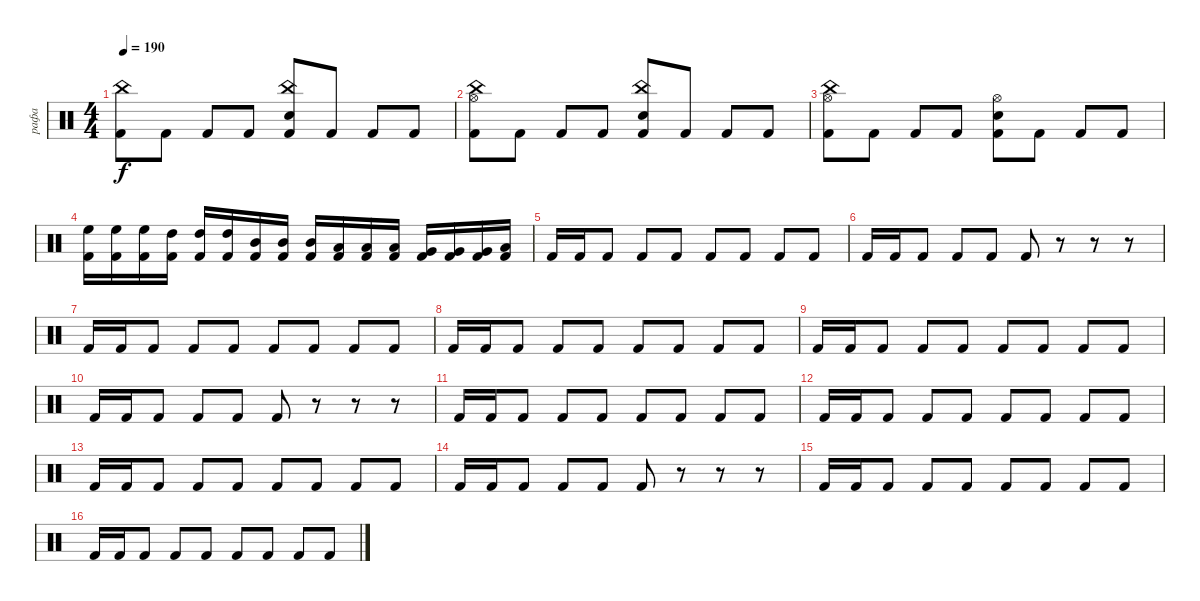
\track ("рафа" "рафа") {instrument percussion}
\staff {score}
\articulation defaults
\ts (4 4)
\tempo 190
\clef neutral
\ks c
("Kick (hit) 2" "China (hit)").8{dy f} "Kick (hit) 2".8 "Kick (hit) 2".8 "Kick (hit) 2".8 ("Kick (hit) 2" "China (hit)" "Snare (hit) 2").8 "Kick (hit) 2".8 "Kick (hit) 2".8 "Kick (hit) 2".8 |
("Kick (hit) 2" "China (hit)" "Hi-Hat (open)").8 "Kick (hit) 2".8 "Kick (hit) 2".8 "Kick (hit) 2".8 ("Kick (hit) 2" "Snare (hit) 2" "China (hit)").8 "Kick (hit) 2".8 "Kick (hit) 2".8 "Kick (hit) 2".8 |
("Kick (hit) 2" "China (hit)" "Hi-Hat (open)").8 "Kick (hit) 2".8 "Kick (hit) 2".8 "Kick (hit) 2".8 ("Kick (hit) 2" "Snare (hit) 2" "Hi-Hat (open)").8 "Kick (hit) 2".8 "Kick (hit) 2".8 "Kick (hit) 2".8 |
("Kick (hit) 2" "High Floor Tom (hit)").16 ("Kick (hit) 2" "High Floor Tom (hit)").16 ("Kick (hit) 2" "High Floor Tom (hit)").16 ("Kick (hit) 2" "High Tom (hit)").16 ("Kick (hit) 2" "High Tom (hit)").16 ("Kick (hit) 2" "High Tom (hit)").16 ("Kick (hit) 2" "Mid Tom (hit)").16 ("Kick (hit) 2" "Mid Tom (hit)").16 ("Kick (hit) 2" "Mid Tom (hit)").16 ("Kick (hit) 2" "Low Tom (hit)").16 ("Kick (hit) 2" "Low Tom (hit)").16 ("Kick (hit) 2" "Low Tom (hit)").16 ("Kick (hit) 2" "Very Low Tom (hit)").16 ("Kick (hit) 2" "Very Low Tom (hit)").16 ("Kick (hit) 2" "Very Low Tom (hit)").16 ("Kick (hit) 2" "Low Floor Tom (hit)").16 |
"Kick (hit) 2".16 "Kick (hit) 2".16 "Kick (hit) 2".8 "Kick (hit) 2".8 "Kick (hit) 2".8 "Kick (hit) 2".8 "Kick (hit) 2".8 "Kick (hit) 2".8 "Kick (hit) 2".8 |
"Kick (hit) 2".16 "Kick (hit) 2".16 "Kick (hit) 2".8 "Kick (hit) 2".8 "Kick (hit) 2".8 "Kick (hit) 2".8 r.8 r.8 r.8 |
"Kick (hit) 2".16 "Kick (hit) 2".16 "Kick (hit) 2".8 "Kick (hit) 2".8 "Kick (hit) 2".8 "Kick (hit) 2".8 "Kick (hit) 2".8 "Kick (hit) 2".8 "Kick (hit) 2".8 |
"Kick (hit) 2".16 "Kick (hit) 2".16 "Kick (hit) 2".8 "Kick (hit) 2".8 "Kick (hit) 2".8 "Kick (hit) 2".8 "Kick (hit) 2".8 "Kick (hit) 2".8 "Kick (hit) 2".8 |
"Kick (hit) 2".16 "Kick (hit) 2".16 "Kick (hit) 2".8 "Kick (hit) 2".8 "Kick (hit) 2".8 "Kick (hit) 2".8 "Kick (hit) 2".8 "Kick (hit) 2".8 "Kick (hit) 2".8 |
"Kick (hit) 2".16 "Kick (hit) 2".16 "Kick (hit) 2".8 "Kick (hit) 2".8 "Kick (hit) 2".8 "Kick (hit) 2".8 r.8 r.8 r.8 |
"Kick (hit) 2".16 "Kick (hit) 2".16 "Kick (hit) 2".8 "Kick (hit) 2".8 "Kick (hit) 2".8 "Kick (hit) 2".8 "Kick (hit) 2".8 "Kick (hit) 2".8 "Kick (hit) 2".8 |
"Kick (hit) 2".16 "Kick (hit) 2".16 "Kick (hit) 2".8 "Kick (hit) 2".8 "Kick (hit) 2".8 "Kick (hit) 2".8 "Kick (hit) 2".8 "Kick (hit) 2".8 "Kick (hit) 2".8 |
"Kick (hit) 2".16 "Kick (hit) 2".16 "Kick (hit) 2".8 "Kick (hit) 2".8 "Kick (hit) 2".8 "Kick (hit) 2".8 "Kick (hit) 2".8 "Kick (hit) 2".8 "Kick (hit) 2".8 |
"Kick (hit) 2".16 "Kick (hit) 2".16 "Kick (hit) 2".8 "Kick (hit) 2".8 "Kick (hit) 2".8 "Kick (hit) 2".8 r.8 r.8 r.8 |
"Kick (hit) 2".16 "Kick (hit) 2".16 "Kick (hit) 2".8 "Kick (hit) 2".8 "Kick (hit) 2".8 "Kick (hit) 2".8 "Kick (hit) 2".8 "Kick (hit) 2".8 "Kick (hit) 2".8 |
"Kick (hit) 2".16 "Kick (hit) 2".16 "Kick (hit) 2".8 "Kick (hit) 2".8 "Kick (hit) 2".8 "Kick (hit) 2".8 "Kick (hit) 2".8 "Kick (hit) 2".8 "Kick (hit) 2".8
